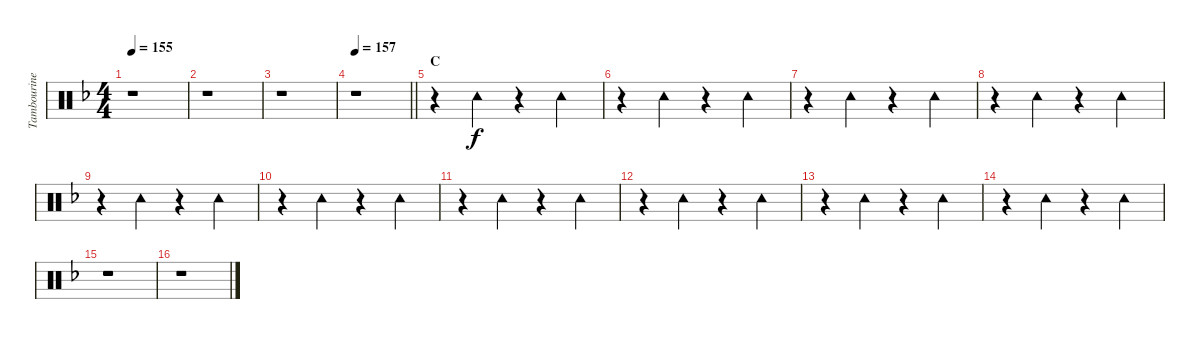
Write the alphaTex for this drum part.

\track ("Tambourine" "Tambourine") {instrument percussion}
\staff {score}
\articulation defaults
\ts (4 4)
\tempo 155
\clef neutral
\ks f
r.1{dy f} |
r.1 |
r.1 |
\tempo 157
\barLineRight lightlight
r.1 |
\section ("" "C")
r.4 "Tambourine (hit)".4 r.4 "Tambourine (hit)".4 |
r.4 "Tambourine (hit)".4 r.4 "Tambourine (hit)".4 |
r.4 "Tambourine (hit)".4 r.4 "Tambourine (hit)".4 |
r.4 "Tambourine (hit)".4 r.4 "Tambourine (hit)".4 |
r.4 "Tambourine (hit)".4 r.4 "Tambourine (hit)".4 |
r.4 "Tambourine (hit)".4 r.4 "Tambourine (hit)".4 |
r.4 "Tambourine (hit)".4 r.4 "Tambourine (hit)".4 |
r.4 "Tambourine (hit)".4 r.4 "Tambourine (hit)".4 |
r.4 "Tambourine (hit)".4 r.4 "Tambourine (hit)".4 |
r.4 "Tambourine (hit)".4 r.4 "Tambourine (hit)".4 |
r.1 |
r.1
